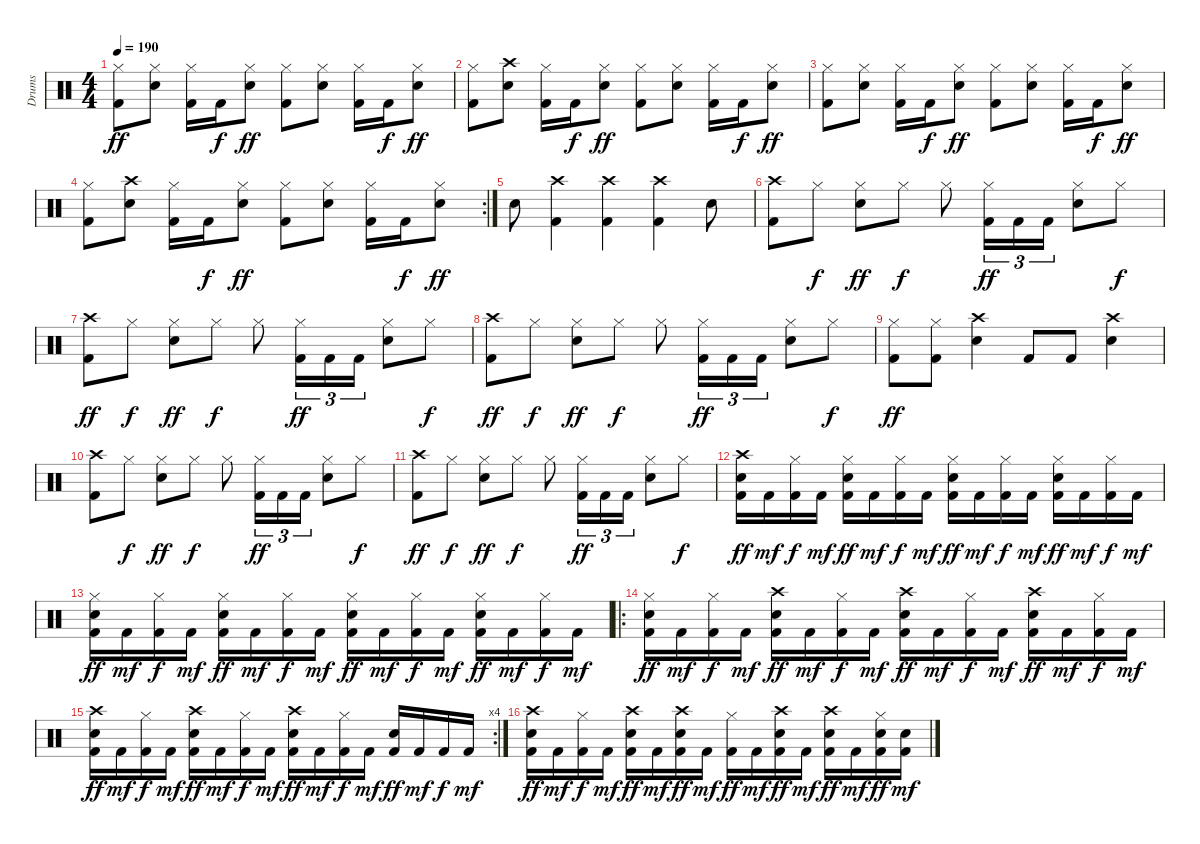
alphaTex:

\track ("Drums" "Drums") {instrument percussion}
\staff {score}
\articulation defaults
\ts (4 4)
\tempo 190
\clef neutral
\ks c
("Hi-Hat (closed)" "Kick (hit) 2").8{dy ff} ("Hi-Hat (closed)" "Snare (hit) 2").8 ("Hi-Hat (closed)" "Kick (hit) 2").16 "Kick (hit) 2".16{dy f} ("Hi-Hat (closed)" "Snare (hit) 2").8{dy ff} ("Hi-Hat (closed)" "Kick (hit) 2").8 ("Hi-Hat (closed)" "Snare (hit) 2").8 ("Hi-Hat (closed)" "Kick (hit) 2").16 "Kick (hit) 2".16{dy f} ("Hi-Hat (closed)" "Snare (hit) 2").8{dy ff} |
("Hi-Hat (closed)" "Kick (hit) 2").8 ("Crash high (hit)" "Snare (hit) 2").8 ("Hi-Hat (closed)" "Kick (hit) 2").16 "Kick (hit) 2".16{dy f} ("Hi-Hat (closed)" "Snare (hit) 2").8{dy ff} ("Hi-Hat (closed)" "Kick (hit) 2").8 ("Hi-Hat (closed)" "Snare (hit) 2").8 ("Hi-Hat (closed)" "Kick (hit) 2").16 "Kick (hit) 2".16{dy f} ("Hi-Hat (closed)" "Snare (hit) 2").8{dy ff} |
("Hi-Hat (closed)" "Kick (hit) 2").8 ("Hi-Hat (closed)" "Snare (hit) 2").8 ("Hi-Hat (closed)" "Kick (hit) 2").16 "Kick (hit) 2".16{dy f} ("Hi-Hat (closed)" "Snare (hit) 2").8{dy ff} ("Hi-Hat (closed)" "Kick (hit) 2").8 ("Hi-Hat (closed)" "Snare (hit) 2").8 ("Hi-Hat (closed)" "Kick (hit) 2").16 "Kick (hit) 2".16{dy f} ("Hi-Hat (closed)" "Snare (hit) 2").8{dy ff} |
\rc 2
("Hi-Hat (closed)" "Kick (hit) 2").8 ("Crash high (hit)" "Snare (hit) 2").8 ("Hi-Hat (closed)" "Kick (hit) 2").16 "Kick (hit) 2".16{dy f} ("Hi-Hat (closed)" "Snare (hit) 2").8{dy ff} ("Hi-Hat (closed)" "Kick (hit) 2").8 ("Hi-Hat (closed)" "Snare (hit) 2").8 ("Hi-Hat (closed)" "Kick (hit) 2").16 "Kick (hit) 2".16{dy f} ("Hi-Hat (closed)" "Snare (hit) 2").8{dy ff} |
"Snare (hit) 2".8 ("Crash high (hit)" "Kick (hit) 2").4 ("Crash high (hit)" "Kick (hit) 2").4 ("Crash high (hit)" "Kick (hit) 2").4 "Snare (hit) 2".8 |
("Crash high (hit)" "Kick (hit) 2").8 "Hi-Hat (closed)".8{dy f} ("Hi-Hat (closed)" "Snare (hit) 2").8{dy ff} "Hi-Hat (closed)".8{dy f} "Hi-Hat (closed)".8 ("Hi-Hat (closed)" "Kick (hit) 2").16{tu (3 2) dy ff} "Kick (hit) 2".16{tu (3 2)} "Kick (hit) 2".16{tu (3 2)} ("Hi-Hat (closed)" "Snare (hit) 2").8 "Hi-Hat (closed)".8{dy f} |
("Crash high (hit)" "Kick (hit) 2").8{dy ff} "Hi-Hat (closed)".8{dy f} ("Hi-Hat (closed)" "Snare (hit) 2").8{dy ff} "Hi-Hat (closed)".8{dy f} "Hi-Hat (closed)".8 ("Hi-Hat (closed)" "Kick (hit) 2").16{tu (3 2) dy ff} "Kick (hit) 2".16{tu (3 2)} "Kick (hit) 2".16{tu (3 2)} ("Hi-Hat (closed)" "Snare (hit) 2").8 "Hi-Hat (closed)".8{dy f} |
("Crash high (hit)" "Kick (hit) 2").8{dy ff} "Hi-Hat (closed)".8{dy f} ("Hi-Hat (closed)" "Snare (hit) 2").8{dy ff} "Hi-Hat (closed)".8{dy f} "Hi-Hat (closed)".8 ("Hi-Hat (closed)" "Kick (hit) 2").16{tu (3 2) dy ff} "Kick (hit) 2".16{tu (3 2)} "Kick (hit) 2".16{tu (3 2)} ("Hi-Hat (closed)" "Snare (hit) 2").8 "Hi-Hat (closed)".8{dy f} |
("Hi-Hat (closed)" "Kick (hit) 2").8{dy ff} ("Hi-Hat (closed)" "Kick (hit) 2").8 ("Crash high (hit)" "Snare (hit) 2").4 "Kick (hit) 2".8 "Kick (hit) 2".8 ("Crash high (hit)" "Snare (hit) 2").4 |
("Crash high (hit)" "Kick (hit) 2").8 "Hi-Hat (closed)".8{dy f} ("Hi-Hat (closed)" "Snare (hit) 2").8{dy ff} "Hi-Hat (closed)".8{dy f} "Hi-Hat (closed)".8 ("Hi-Hat (closed)" "Kick (hit) 2").16{tu (3 2) dy ff} "Kick (hit) 2".16{tu (3 2)} "Kick (hit) 2".16{tu (3 2)} ("Hi-Hat (closed)" "Snare (hit) 2").8 "Hi-Hat (closed)".8{dy f} |
("Crash high (hit)" "Kick (hit) 2").8{dy ff} "Hi-Hat (closed)".8{dy f} ("Hi-Hat (closed)" "Snare (hit) 2").8{dy ff} "Hi-Hat (closed)".8{dy f} "Hi-Hat (closed)".8 ("Hi-Hat (closed)" "Kick (hit) 2").16{tu (3 2) dy ff} "Kick (hit) 2".16{tu (3 2)} "Kick (hit) 2".16{tu (3 2)} ("Hi-Hat (closed)" "Snare (hit) 2").8 "Hi-Hat (closed)".8{dy f} |
("Crash high (hit)" "Snare (hit) 2" "Kick (hit) 2").16{dy ff} "Kick (hit) 2".16{dy mf} ("Hi-Hat (closed)" "Kick (hit) 2").16{dy f} "Kick (hit) 2".16{dy mf} ("Hi-Hat (closed)" "Snare (hit) 2" "Kick (hit) 2").16{dy ff} "Kick (hit) 2".16{dy mf} ("Hi-Hat (closed)" "Kick (hit) 2").16{dy f} "Kick (hit) 2".16{dy mf} ("Hi-Hat (closed)" "Snare (hit) 2" "Kick (hit) 2").16{dy ff} "Kick (hit) 2".16{dy mf} ("Hi-Hat (closed)" "Kick (hit) 2").16{dy f} "Kick (hit) 2".16{dy mf} ("Hi-Hat (closed)" "Snare (hit) 2" "Kick (hit) 2").16{dy ff} "Kick (hit) 2".16{dy mf} ("Hi-Hat (closed)" "Kick (hit) 2").16{dy f} "Kick (hit) 2".16{dy mf} |
("Hi-Hat (closed)" "Snare (hit) 2" "Kick (hit) 2").16{dy ff} "Kick (hit) 2".16{dy mf} ("Hi-Hat (closed)" "Kick (hit) 2").16{dy f} "Kick (hit) 2".16{dy mf} ("Hi-Hat (closed)" "Snare (hit) 2" "Kick (hit) 2").16{dy ff} "Kick (hit) 2".16{dy mf} ("Hi-Hat (closed)" "Kick (hit) 2").16{dy f} "Kick (hit) 2".16{dy mf} ("Hi-Hat (closed)" "Snare (hit) 2" "Kick (hit) 2").16{dy ff} "Kick (hit) 2".16{dy mf} ("Hi-Hat (closed)" "Kick (hit) 2").16{dy f} "Kick (hit) 2".16{dy mf} ("Hi-Hat (closed)" "Snare (hit) 2" "Kick (hit) 2").16{dy ff} "Kick (hit) 2".16{dy mf} ("Hi-Hat (closed)" "Kick (hit) 2").16{dy f} "Kick (hit) 2".16{dy mf} |
\ro
("Hi-Hat (closed)" "Snare (hit) 2" "Kick (hit) 2").16{dy ff} "Kick (hit) 2".16{dy mf} ("Hi-Hat (closed)" "Kick (hit) 2").16{dy f} "Kick (hit) 2".16{dy mf} ("Crash high (hit)" "Snare (hit) 2" "Kick (hit) 2").16{dy ff} "Kick (hit) 2".16{dy mf} ("Hi-Hat (closed)" "Kick (hit) 2").16{dy f} "Kick (hit) 2".16{dy mf} ("Crash high (hit)" "Snare (hit) 2" "Kick (hit) 2").16{dy ff} "Kick (hit) 2".16{dy mf} ("Hi-Hat (closed)" "Kick (hit) 2").16{dy f} "Kick (hit) 2".16{dy mf} ("Crash high (hit)" "Snare (hit) 2" "Kick (hit) 2").16{dy ff} "Kick (hit) 2".16{dy mf} ("Hi-Hat (closed)" "Kick (hit) 2").16{dy f} "Kick (hit) 2".16{dy mf} |
\rc 4
("Crash high (hit)" "Snare (hit) 2" "Kick (hit) 2").16{dy ff} "Kick (hit) 2".16{dy mf} ("Hi-Hat (closed)" "Kick (hit) 2").16{dy f} "Kick (hit) 2".16{dy mf} ("Crash high (hit)" "Snare (hit) 2" "Kick (hit) 2").16{dy ff} "Kick (hit) 2".16{dy mf} ("Hi-Hat (closed)" "Kick (hit) 2").16{dy f} "Kick (hit) 2".16{dy mf} ("Crash high (hit)" "Snare (hit) 2" "Kick (hit) 2").16{dy ff} "Kick (hit) 2".16{dy mf} ("Hi-Hat (closed)" "Kick (hit) 2").16{dy f} "Kick (hit) 2".16{dy mf} ("Snare (hit) 2" "Kick (hit) 2").16{dy ff} "Kick (hit) 2".16{dy mf} "Kick (hit) 2".16{dy f} "Kick (hit) 2".16{dy mf} |
("Crash high (hit)" "Snare (hit) 2" "Kick (hit) 2").16{dy ff} "Kick (hit) 2".16{dy mf} ("Hi-Hat (closed)" "Kick (hit) 2").16{dy f} "Kick (hit) 2".16{dy mf} ("Crash high (hit)" "Snare (hit) 2" "Kick (hit) 2").16{dy ff} "Kick (hit) 2".16{dy mf} ("Crash high (hit)" "Snare (hit) 2" "Kick (hit) 2").16{dy ff} "Kick (hit) 2".16{dy mf} ("Hi-Hat (closed)" "Kick (hit) 2").16{dy ff} "Kick (hit) 2".16{dy mf} ("Crash high (hit)" "Snare (hit) 2" "Kick (hit) 2").16{dy ff} "Kick (hit) 2".16{dy mf} ("Crash high (hit)" "Snare (hit) 2" "Kick (hit) 2").16{dy ff} "Kick (hit) 2".16{dy mf} ("Hi-Hat (closed)" "Snare (hit) 2" "Kick (hit) 2").16{dy ff} ("Snare (hit) 2" "Kick (hit) 2").16{dy mf}
